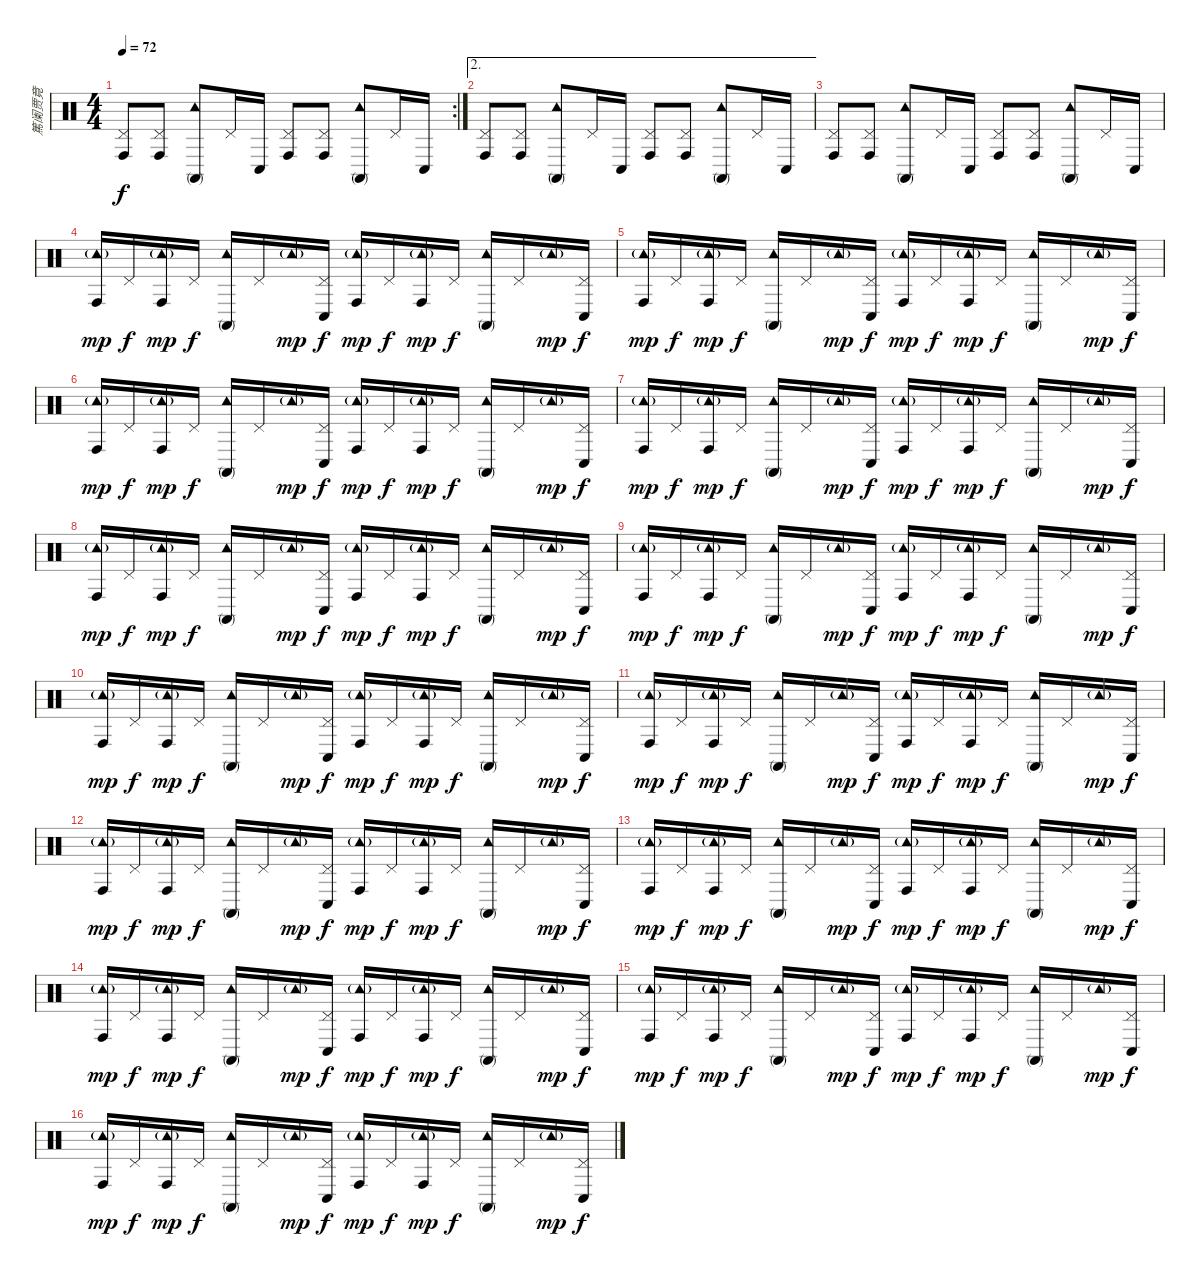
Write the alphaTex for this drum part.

\track ("篤阑贾竟" "篤阑贾竟") {instrument percussion}
\staff {score}
\articulation defaults
\rc 2
\ts (4 4)
\tempo 72
\clef neutral
\ks c
("Pedal Hi-Hat (hit)" "Conga high (hit)").8{dy f} ("Pedal Hi-Hat (hit)" "Conga high (hit)").8 ("Tambourine (hit)" "Conga high (mute)").8 "Pedal Hi-Hat (hit)".16 "Conga low (hit)".16 ("Pedal Hi-Hat (hit)" "Conga high (hit)").8 ("Pedal Hi-Hat (hit)" "Conga high (hit)").8 ("Tambourine (hit)" "Conga high (mute)").8 "Pedal Hi-Hat (hit)".16 "Conga low (hit)".16 |
\ae 2
("Pedal Hi-Hat (hit)" "Conga high (hit)").8 ("Pedal Hi-Hat (hit)" "Conga high (hit)").8 ("Tambourine (hit)" "Conga high (mute)").8 "Pedal Hi-Hat (hit)".16 "Conga low (hit)".16 ("Pedal Hi-Hat (hit)" "Conga high (hit)").8 ("Pedal Hi-Hat (hit)" "Conga high (hit)").8 ("Tambourine (hit)" "Conga high (mute)").8 "Pedal Hi-Hat (hit)".16 "Conga low (hit)".16 |
("Pedal Hi-Hat (hit)" "Conga high (hit)").8 ("Pedal Hi-Hat (hit)" "Conga high (hit)").8 ("Tambourine (hit)" "Conga high (mute)").8 "Pedal Hi-Hat (hit)".16 "Conga low (hit)".16 ("Pedal Hi-Hat (hit)" "Conga high (hit)").8 ("Pedal Hi-Hat (hit)" "Conga high (hit)").8 ("Tambourine (hit)" "Conga high (mute)").8 "Pedal Hi-Hat (hit)".16 "Conga low (hit)".16 |
("Tambourine (hit)"{g} "Conga high (hit)").16{dy mp} "Pedal Hi-Hat (hit)".16{dy f} ("Tambourine (hit)"{g} "Conga high (hit)").16{dy mp} "Pedal Hi-Hat (hit)".16{dy f} ("Tambourine (hit)" "Conga high (mute)").16 "Pedal Hi-Hat (hit)".16 "Tambourine (hit)"{g}.16{dy mp} ("Pedal Hi-Hat (hit)" "Conga low (hit)").16{dy f} ("Tambourine (hit)"{g} "Conga high (hit)").16{dy mp} "Pedal Hi-Hat (hit)".16{dy f} ("Tambourine (hit)"{g} "Conga high (hit)").16{dy mp} "Pedal Hi-Hat (hit)".16{dy f} ("Tambourine (hit)" "Conga high (mute)").16 "Pedal Hi-Hat (hit)".16 "Tambourine (hit)"{g}.16{dy mp} ("Pedal Hi-Hat (hit)" "Conga low (hit)").16{dy f} |
("Tambourine (hit)"{g} "Conga high (hit)").16{dy mp} "Pedal Hi-Hat (hit)".16{dy f} ("Tambourine (hit)"{g} "Conga high (hit)").16{dy mp} "Pedal Hi-Hat (hit)".16{dy f} ("Tambourine (hit)" "Conga high (mute)").16 "Pedal Hi-Hat (hit)".16 "Tambourine (hit)"{g}.16{dy mp} ("Pedal Hi-Hat (hit)" "Conga low (hit)").16{dy f} ("Tambourine (hit)"{g} "Conga high (hit)").16{dy mp} "Pedal Hi-Hat (hit)".16{dy f} ("Tambourine (hit)"{g} "Conga high (hit)").16{dy mp} "Pedal Hi-Hat (hit)".16{dy f} ("Tambourine (hit)" "Conga high (mute)").16 "Pedal Hi-Hat (hit)".16 "Tambourine (hit)"{g}.16{dy mp} ("Pedal Hi-Hat (hit)" "Conga low (hit)").16{dy f} |
("Tambourine (hit)"{g} "Conga high (hit)").16{dy mp} "Pedal Hi-Hat (hit)".16{dy f} ("Tambourine (hit)"{g} "Conga high (hit)").16{dy mp} "Pedal Hi-Hat (hit)".16{dy f} ("Tambourine (hit)" "Conga high (mute)").16 "Pedal Hi-Hat (hit)".16 "Tambourine (hit)"{g}.16{dy mp} ("Pedal Hi-Hat (hit)" "Conga low (hit)").16{dy f} ("Tambourine (hit)"{g} "Conga high (hit)").16{dy mp} "Pedal Hi-Hat (hit)".16{dy f} ("Tambourine (hit)"{g} "Conga high (hit)").16{dy mp} "Pedal Hi-Hat (hit)".16{dy f} ("Tambourine (hit)" "Conga high (mute)").16 "Pedal Hi-Hat (hit)".16 "Tambourine (hit)"{g}.16{dy mp} ("Pedal Hi-Hat (hit)" "Conga low (hit)").16{dy f} |
("Tambourine (hit)"{g} "Conga high (hit)").16{dy mp} "Pedal Hi-Hat (hit)".16{dy f} ("Tambourine (hit)"{g} "Conga high (hit)").16{dy mp} "Pedal Hi-Hat (hit)".16{dy f} ("Tambourine (hit)" "Conga high (mute)").16 "Pedal Hi-Hat (hit)".16 "Tambourine (hit)"{g}.16{dy mp} ("Pedal Hi-Hat (hit)" "Conga low (hit)").16{dy f} ("Tambourine (hit)"{g} "Conga high (hit)").16{dy mp} "Pedal Hi-Hat (hit)".16{dy f} ("Tambourine (hit)"{g} "Conga high (hit)").16{dy mp} "Pedal Hi-Hat (hit)".16{dy f} ("Tambourine (hit)" "Conga high (mute)").16 "Pedal Hi-Hat (hit)".16 "Tambourine (hit)"{g}.16{dy mp} ("Pedal Hi-Hat (hit)" "Conga low (hit)").16{dy f} |
("Tambourine (hit)"{g} "Conga high (hit)").16{dy mp} "Pedal Hi-Hat (hit)".16{dy f} ("Tambourine (hit)"{g} "Conga high (hit)").16{dy mp} "Pedal Hi-Hat (hit)".16{dy f} ("Tambourine (hit)" "Conga high (mute)").16 "Pedal Hi-Hat (hit)".16 "Tambourine (hit)"{g}.16{dy mp} ("Pedal Hi-Hat (hit)" "Conga low (hit)").16{dy f} ("Tambourine (hit)"{g} "Conga high (hit)").16{dy mp} "Pedal Hi-Hat (hit)".16{dy f} ("Tambourine (hit)"{g} "Conga high (hit)").16{dy mp} "Pedal Hi-Hat (hit)".16{dy f} ("Tambourine (hit)" "Conga high (mute)").16 "Pedal Hi-Hat (hit)".16 "Tambourine (hit)"{g}.16{dy mp} ("Pedal Hi-Hat (hit)" "Conga low (hit)").16{dy f} |
("Tambourine (hit)"{g} "Conga high (hit)").16{dy mp} "Pedal Hi-Hat (hit)".16{dy f} ("Tambourine (hit)"{g} "Conga high (hit)").16{dy mp} "Pedal Hi-Hat (hit)".16{dy f} ("Tambourine (hit)" "Conga high (mute)").16 "Pedal Hi-Hat (hit)".16 "Tambourine (hit)"{g}.16{dy mp} ("Pedal Hi-Hat (hit)" "Conga low (hit)").16{dy f} ("Tambourine (hit)"{g} "Conga high (hit)").16{dy mp} "Pedal Hi-Hat (hit)".16{dy f} ("Tambourine (hit)"{g} "Conga high (hit)").16{dy mp} "Pedal Hi-Hat (hit)".16{dy f} ("Tambourine (hit)" "Conga high (mute)").16 "Pedal Hi-Hat (hit)".16 "Tambourine (hit)"{g}.16{dy mp} ("Pedal Hi-Hat (hit)" "Conga low (hit)").16{dy f} |
("Tambourine (hit)"{g} "Conga high (hit)").16{dy mp} "Pedal Hi-Hat (hit)".16{dy f} ("Tambourine (hit)"{g} "Conga high (hit)").16{dy mp} "Pedal Hi-Hat (hit)".16{dy f} ("Tambourine (hit)" "Conga high (mute)").16 "Pedal Hi-Hat (hit)".16 "Tambourine (hit)"{g}.16{dy mp} ("Pedal Hi-Hat (hit)" "Conga low (hit)").16{dy f} ("Tambourine (hit)"{g} "Conga high (hit)").16{dy mp} "Pedal Hi-Hat (hit)".16{dy f} ("Tambourine (hit)"{g} "Conga high (hit)").16{dy mp} "Pedal Hi-Hat (hit)".16{dy f} ("Tambourine (hit)" "Conga high (mute)").16 "Pedal Hi-Hat (hit)".16 "Tambourine (hit)"{g}.16{dy mp} ("Pedal Hi-Hat (hit)" "Conga low (hit)").16{dy f} |
("Tambourine (hit)"{g} "Conga high (hit)").16{dy mp} "Pedal Hi-Hat (hit)".16{dy f} ("Tambourine (hit)"{g} "Conga high (hit)").16{dy mp} "Pedal Hi-Hat (hit)".16{dy f} ("Tambourine (hit)" "Conga high (mute)").16 "Pedal Hi-Hat (hit)".16 "Tambourine (hit)"{g}.16{dy mp} ("Pedal Hi-Hat (hit)" "Conga low (hit)").16{dy f} ("Tambourine (hit)"{g} "Conga high (hit)").16{dy mp} "Pedal Hi-Hat (hit)".16{dy f} ("Tambourine (hit)"{g} "Conga high (hit)").16{dy mp} "Pedal Hi-Hat (hit)".16{dy f} ("Tambourine (hit)" "Conga high (mute)").16 "Pedal Hi-Hat (hit)".16 "Tambourine (hit)"{g}.16{dy mp} ("Pedal Hi-Hat (hit)" "Conga low (hit)").16{dy f} |
("Tambourine (hit)"{g} "Conga high (hit)").16{dy mp} "Pedal Hi-Hat (hit)".16{dy f} ("Tambourine (hit)"{g} "Conga high (hit)").16{dy mp} "Pedal Hi-Hat (hit)".16{dy f} ("Tambourine (hit)" "Conga high (mute)").16 "Pedal Hi-Hat (hit)".16 "Tambourine (hit)"{g}.16{dy mp} ("Pedal Hi-Hat (hit)" "Conga low (hit)").16{dy f} ("Tambourine (hit)"{g} "Conga high (hit)").16{dy mp} "Pedal Hi-Hat (hit)".16{dy f} ("Tambourine (hit)"{g} "Conga high (hit)").16{dy mp} "Pedal Hi-Hat (hit)".16{dy f} ("Tambourine (hit)" "Conga high (mute)").16 "Pedal Hi-Hat (hit)".16 "Tambourine (hit)"{g}.16{dy mp} ("Pedal Hi-Hat (hit)" "Conga low (hit)").16{dy f} |
("Tambourine (hit)"{g} "Conga high (hit)").16{dy mp} "Pedal Hi-Hat (hit)".16{dy f} ("Tambourine (hit)"{g} "Conga high (hit)").16{dy mp} "Pedal Hi-Hat (hit)".16{dy f} ("Tambourine (hit)" "Conga high (mute)").16 "Pedal Hi-Hat (hit)".16 "Tambourine (hit)"{g}.16{dy mp} ("Pedal Hi-Hat (hit)" "Conga low (hit)").16{dy f} ("Tambourine (hit)"{g} "Conga high (hit)").16{dy mp} "Pedal Hi-Hat (hit)".16{dy f} ("Tambourine (hit)"{g} "Conga high (hit)").16{dy mp} "Pedal Hi-Hat (hit)".16{dy f} ("Tambourine (hit)" "Conga high (mute)").16 "Pedal Hi-Hat (hit)".16 "Tambourine (hit)"{g}.16{dy mp} ("Pedal Hi-Hat (hit)" "Conga low (hit)").16{dy f} |
("Tambourine (hit)"{g} "Conga high (hit)").16{dy mp} "Pedal Hi-Hat (hit)".16{dy f} ("Tambourine (hit)"{g} "Conga high (hit)").16{dy mp} "Pedal Hi-Hat (hit)".16{dy f} ("Tambourine (hit)" "Conga high (mute)").16 "Pedal Hi-Hat (hit)".16 "Tambourine (hit)"{g}.16{dy mp} ("Pedal Hi-Hat (hit)" "Conga low (hit)").16{dy f} ("Tambourine (hit)"{g} "Conga high (hit)").16{dy mp} "Pedal Hi-Hat (hit)".16{dy f} ("Tambourine (hit)"{g} "Conga high (hit)").16{dy mp} "Pedal Hi-Hat (hit)".16{dy f} ("Tambourine (hit)" "Conga high (mute)").16 "Pedal Hi-Hat (hit)".16 "Tambourine (hit)"{g}.16{dy mp} ("Pedal Hi-Hat (hit)" "Conga low (hit)").16{dy f} |
("Tambourine (hit)"{g} "Conga high (hit)").16{dy mp} "Pedal Hi-Hat (hit)".16{dy f} ("Tambourine (hit)"{g} "Conga high (hit)").16{dy mp} "Pedal Hi-Hat (hit)".16{dy f} ("Tambourine (hit)" "Conga high (mute)").16 "Pedal Hi-Hat (hit)".16 "Tambourine (hit)"{g}.16{dy mp} ("Pedal Hi-Hat (hit)" "Conga low (hit)").16{dy f} ("Tambourine (hit)"{g} "Conga high (hit)").16{dy mp} "Pedal Hi-Hat (hit)".16{dy f} ("Tambourine (hit)"{g} "Conga high (hit)").16{dy mp} "Pedal Hi-Hat (hit)".16{dy f} ("Tambourine (hit)" "Conga high (mute)").16 "Pedal Hi-Hat (hit)".16 "Tambourine (hit)"{g}.16{dy mp} ("Pedal Hi-Hat (hit)" "Conga low (hit)").16{dy f} |
("Tambourine (hit)"{g} "Conga high (hit)").16{dy mp} "Pedal Hi-Hat (hit)".16{dy f} ("Tambourine (hit)"{g} "Conga high (hit)").16{dy mp} "Pedal Hi-Hat (hit)".16{dy f} ("Tambourine (hit)" "Conga high (mute)").16 "Pedal Hi-Hat (hit)".16 "Tambourine (hit)"{g}.16{dy mp} ("Pedal Hi-Hat (hit)" "Conga low (hit)").16{dy f} ("Tambourine (hit)"{g} "Conga high (hit)").16{dy mp} "Pedal Hi-Hat (hit)".16{dy f} ("Tambourine (hit)"{g} "Conga high (hit)").16{dy mp} "Pedal Hi-Hat (hit)".16{dy f} ("Tambourine (hit)" "Conga high (mute)").16 "Pedal Hi-Hat (hit)".16 "Tambourine (hit)"{g}.16{dy mp} ("Pedal Hi-Hat (hit)" "Conga low (hit)").16{dy f}
